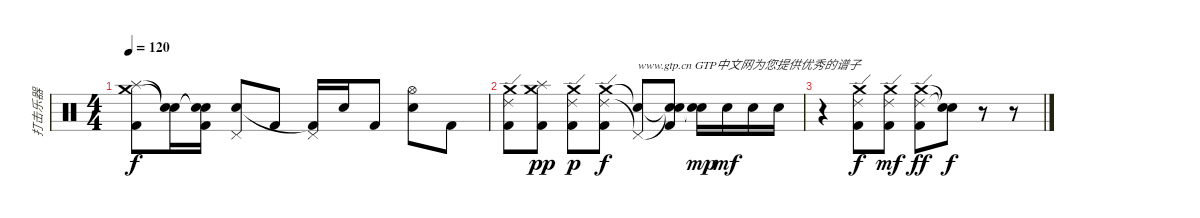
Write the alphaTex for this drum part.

\track ("打击乐器" "打击乐器") {instrument percussion}
\staff {score}
\articulation defaults
\ts (4 4)
\tempo 120
\clef neutral
\ks c
("Crash medium (hit)" "Splash (hit)" "Kick (hit) 2").8{dy f} ("Snare (hit)"{t} "Snare (hit)"{t}).16 ("Snare (hit)"{t} "Snare (hit)"{t} "Kick (hit) 2").16 ("Pedal Hi-Hat (hit)" "Metronome (bell)").8 "Kick (hit) 2".8 ("Pedal Hi-Hat (hit)" "Kick (hit) 2"{t}).16 "Metronome (bell)".16 "Kick (hit) 2".8 ("Hi-Hat (open)" "Metronome (bell)").8 "Kick (hit) 2".8 |
("Crash medium (hit)" "Ride (edge) 2" "Kick (hit) 2").8 ("Crash medium (hit)" "Splash (hit)" "Kick (hit) 2").8{dy pp} ("Crash medium (hit)" "Ride (edge) 2" "Kick (hit) 2").8{dy p} ("Crash medium (hit)" "Ride (edge) 2" "Kick (hit) 2").8{dy f} ("Snare (hit)"{t} "Pedal Hi-Hat (hit)"{t}).8{txt "www.gtp.cn GTP中文网为您提供优秀的谱子"} ("Snare (hit)"{t} "Snare (hit)"{t} "Kick (hit) 2").8 ("Snare (hit)"{t} "Metronome (bell)").16{dy mp} "Metronome (bell)".16{dy mf} "Metronome (bell)".16 "Metronome (bell)".16 |
r.4 ("Crash medium (hit)" "Ride (edge) 2" "Kick (hit) 2").8{dy f} ("Crash medium (hit)" "Ride (edge) 2" "Kick (hit) 2").8{dy mf} ("Crash medium (hit)" "Ride (edge) 2" "Kick (hit) 2").8{dy ff} ("Snare (hit)"{t} "Snare (hit)"{t}).8{dy f} r.8 r.8
